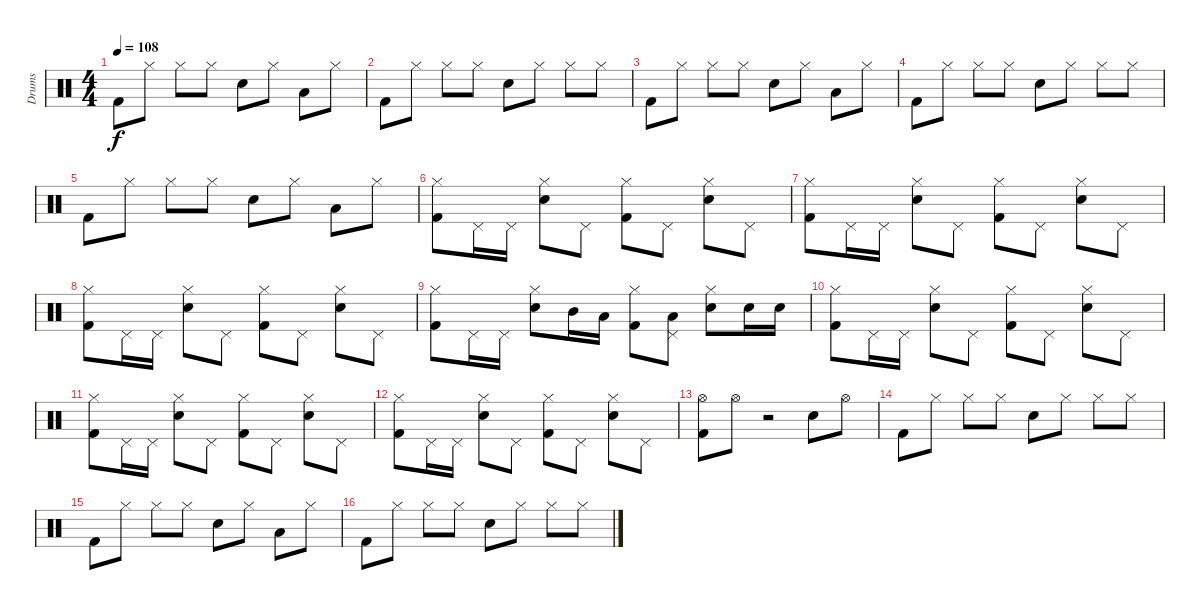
\track ("Drums" "Drums") {instrument percussion}
\staff {score}
\articulation defaults
\ts (4 4)
\tempo 108
\clef neutral
\ks c "Kick (hit) 2".8{dy f} "Hi-Hat (closed)".8 "Hi-Hat (closed)".8 "Hi-Hat (closed)".8 "Electric Snare (hit)".8 "Hi-Hat (closed)".8 "Low Tom (hit)".8 "Hi-Hat (closed)".8
|
"Kick (hit) 2".8 "Hi-Hat (closed)".8 "Hi-Hat (closed)".8 "Hi-Hat (closed)".8 "Electric Snare (hit)".8 "Hi-Hat (closed)".8 "Hi-Hat (closed)".8 "Hi-Hat (closed)".8 |
"Kick (hit) 2".8 "Hi-Hat (closed)".8 "Hi-Hat (closed)".8 "Hi-Hat (closed)".8 "Electric Snare (hit)".8 "Hi-Hat (closed)".8 "Low Tom (hit)".8 "Hi-Hat (closed)".8 |
"Kick (hit) 2".8 "Hi-Hat (closed)".8 "Hi-Hat (closed)".8 "Hi-Hat (closed)".8 "Electric Snare (hit)".8 "Hi-Hat (closed)".8 "Hi-Hat (closed)".8 "Hi-Hat (closed)".8 |
"Kick (hit) 2".8 "Hi-Hat (closed)".8 "Hi-Hat (closed)".8 "Hi-Hat (closed)".8 "Electric Snare (hit)".8 "Hi-Hat (closed)".8 "Low Tom (hit)".8 "Hi-Hat (closed)".8 |
("Hi-Hat (closed)" "Kick (hit) 2").8 "Pedal Hi-Hat (hit)".16 "Pedal Hi-Hat (hit)".16 ("Hi-Hat (closed)" "Electric Snare (hit)").8 "Pedal Hi-Hat (hit)".8 ("Hi-Hat (closed)" "Kick (hit) 2").8 "Pedal Hi-Hat (hit)".8 ("Hi-Hat (closed)" "Electric Snare (hit)").8 "Pedal Hi-Hat (hit)".8 |
("Hi-Hat (closed)" "Kick (hit) 2").8 "Pedal Hi-Hat (hit)".16 "Pedal Hi-Hat (hit)".16 ("Hi-Hat (closed)" "Electric Snare (hit)").8 "Pedal Hi-Hat (hit)".8 ("Hi-Hat (closed)" "Kick (hit) 2").8 "Pedal Hi-Hat (hit)".8 ("Hi-Hat (closed)" "Electric Snare (hit)").8 "Pedal Hi-Hat (hit)".8 |
("Hi-Hat (closed)" "Kick (hit) 2").8 "Pedal Hi-Hat (hit)".16 "Pedal Hi-Hat (hit)".16 ("Hi-Hat (closed)" "Electric Snare (hit)").8 "Pedal Hi-Hat (hit)".8 ("Hi-Hat (closed)" "Kick (hit) 2").8 "Pedal Hi-Hat (hit)".8 ("Hi-Hat (closed)" "Electric Snare (hit)").8 "Pedal Hi-Hat (hit)".8 |
("Hi-Hat (closed)" "Kick (hit) 2").8 "Pedal Hi-Hat (hit)".16 "Pedal Hi-Hat (hit)".16 ("Hi-Hat (closed)" "Electric Snare (hit)").8 "Mid Tom (hit)".16 "Low Tom (hit)".16 ("Hi-Hat (closed)" "Kick (hit) 2").8 ("Pedal Hi-Hat (hit)" "Low Tom (hit)").8 ("Hi-Hat (closed)" "Electric Snare (hit)").8 "Electric Snare (hit)".16 "Electric Snare (hit)".16 |
("Hi-Hat (closed)" "Kick (hit) 2").8 "Pedal Hi-Hat (hit)".16 "Pedal Hi-Hat (hit)".16 ("Hi-Hat (closed)" "Electric Snare (hit)").8 "Pedal Hi-Hat (hit)".8 ("Hi-Hat (closed)" "Kick (hit) 2").8 "Pedal Hi-Hat (hit)".8 ("Hi-Hat (closed)" "Electric Snare (hit)").8 "Pedal Hi-Hat (hit)".8 |
("Hi-Hat (closed)" "Kick (hit) 2").8 "Pedal Hi-Hat (hit)".16 "Pedal Hi-Hat (hit)".16 ("Hi-Hat (closed)" "Electric Snare (hit)").8 "Pedal Hi-Hat (hit)".8 ("Hi-Hat (closed)" "Kick (hit) 2").8 "Pedal Hi-Hat (hit)".8 ("Hi-Hat (closed)" "Electric Snare (hit)").8 "Pedal Hi-Hat (hit)".8 |
("Hi-Hat (closed)" "Kick (hit) 2").8 "Pedal Hi-Hat (hit)".16 "Pedal Hi-Hat (hit)".16 ("Hi-Hat (closed)" "Electric Snare (hit)").8 "Pedal Hi-Hat (hit)".8 ("Hi-Hat (closed)" "Kick (hit) 2").8 "Pedal Hi-Hat (hit)".8 ("Hi-Hat (closed)" "Electric Snare (hit)").8 "Pedal Hi-Hat (hit)".8 |
("Hi-Hat (open)" "Kick (hit) 2").8 "Hi-Hat (open)".8 r.2 "Electric Snare (hit)".8 "Hi-Hat (open)".8 |
"Kick (hit) 2".8 "Hi-Hat (closed)".8 "Hi-Hat (closed)".8 "Hi-Hat (closed)".8 "Electric Snare (hit)".8 "Hi-Hat (closed)".8 "Hi-Hat (closed)".8 "Hi-Hat (closed)".8 |
"Kick (hit) 2".8 "Hi-Hat (closed)".8 "Hi-Hat (closed)".8 "Hi-Hat (closed)".8 "Electric Snare (hit)".8 "Hi-Hat (closed)".8 "Low Tom (hit)".8 "Hi-Hat (closed)".8 |
"Kick (hit) 2".8 "Hi-Hat (closed)".8 "Hi-Hat (closed)".8 "Hi-Hat (closed)".8 "Electric Snare (hit)".8 "Hi-Hat (closed)".8 "Hi-Hat (closed)".8 "Hi-Hat (closed)".8
